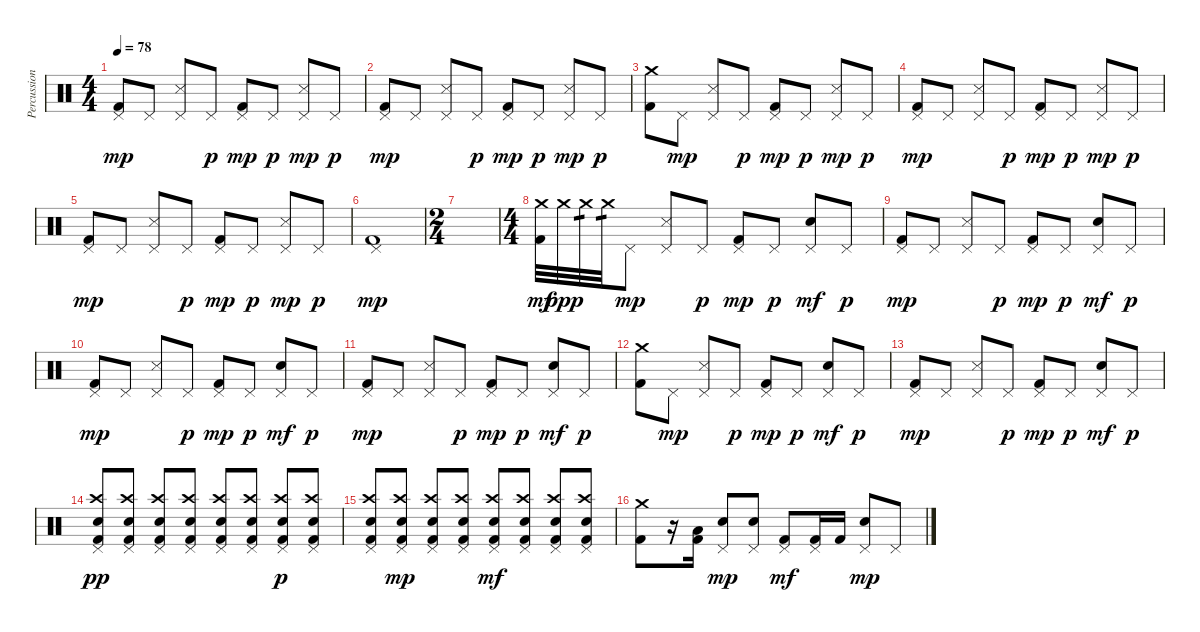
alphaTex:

\track ("Percussion" "Percussion") {instrument percussion}
\staff {score}
\articulation defaults
\ts (4 4)
\tempo 78
\clef neutral
\ks c
("Pedal Hi-Hat (hit)" "Kick (hit) 2").8{dy mp} "Pedal Hi-Hat (hit)".8 ("Pedal Hi-Hat (hit)" "Snare (side stick) 3").8 "Pedal Hi-Hat (hit)".8{dy p} ("Pedal Hi-Hat (hit)" "Kick (hit) 2").8{dy mp} "Pedal Hi-Hat (hit)".8{dy p} ("Pedal Hi-Hat (hit)" "Snare (side stick) 3").8{dy mp} "Pedal Hi-Hat (hit)".8{dy p} |
("Pedal Hi-Hat (hit)" "Kick (hit) 2").8{dy mp} "Pedal Hi-Hat (hit)".8 ("Pedal Hi-Hat (hit)" "Snare (side stick) 3").8 "Pedal Hi-Hat (hit)".8{dy p} ("Pedal Hi-Hat (hit)" "Kick (hit) 2").8{dy mp} "Pedal Hi-Hat (hit)".8{dy p} ("Pedal Hi-Hat (hit)" "Snare (side stick) 3").8{dy mp} "Pedal Hi-Hat (hit)".8{dy p} |
("Crash medium (hit)" "Kick (hit) 2").8 "Pedal Hi-Hat (hit)".8{dy mp} ("Pedal Hi-Hat (hit)" "Snare (side stick) 3").8 "Pedal Hi-Hat (hit)".8{dy p} ("Pedal Hi-Hat (hit)" "Kick (hit) 2").8{dy mp} "Pedal Hi-Hat (hit)".8{dy p} ("Pedal Hi-Hat (hit)" "Snare (side stick) 3").8{dy mp} "Pedal Hi-Hat (hit)".8{dy p} |
("Pedal Hi-Hat (hit)" "Kick (hit) 2").8{dy mp} "Pedal Hi-Hat (hit)".8 ("Pedal Hi-Hat (hit)" "Snare (side stick) 3").8 "Pedal Hi-Hat (hit)".8{dy p} ("Pedal Hi-Hat (hit)" "Kick (hit) 2").8{dy mp} "Pedal Hi-Hat (hit)".8{dy p} ("Pedal Hi-Hat (hit)" "Snare (side stick) 3").8{dy mp} "Pedal Hi-Hat (hit)".8{dy p} |
("Pedal Hi-Hat (hit)" "Kick (hit) 2").8{dy mp} "Pedal Hi-Hat (hit)".8 ("Pedal Hi-Hat (hit)" "Snare (side stick) 3").8 "Pedal Hi-Hat (hit)".8{dy p} ("Pedal Hi-Hat (hit)" "Kick (hit) 2").8{dy mp} "Pedal Hi-Hat (hit)".8{dy p} ("Pedal Hi-Hat (hit)" "Snare (side stick) 3").8{dy mp} "Pedal Hi-Hat (hit)".8{dy p} |
("Pedal Hi-Hat (hit)" "Kick (hit) 2").1{dy mp} |
\ts (2 4)
|
\ts (4 4)
("Crash medium (hit)" "Kick (hit) 2").32{dy mf} "Crash medium (hit)".32{dy ppp} "Crash medium (hit)".32{tp 1} "Crash medium (hit)".32{tp 1} "Pedal Hi-Hat (hit)".8{dy mp} ("Pedal Hi-Hat (hit)" "Snare (side stick) 3").8 "Pedal Hi-Hat (hit)".8{dy p} ("Pedal Hi-Hat (hit)" "Kick (hit) 2").8{dy mp} "Pedal Hi-Hat (hit)".8{dy p} ("Pedal Hi-Hat (hit)" "Electric Snare (hit)").8{dy mf} "Pedal Hi-Hat (hit)".8{dy p} |
("Pedal Hi-Hat (hit)" "Kick (hit) 2").8{dy mp} "Pedal Hi-Hat (hit)".8 ("Pedal Hi-Hat (hit)" "Snare (side stick) 3").8 "Pedal Hi-Hat (hit)".8{dy p} ("Pedal Hi-Hat (hit)" "Kick (hit) 2").8{dy mp} "Pedal Hi-Hat (hit)".8{dy p} ("Pedal Hi-Hat (hit)" "Electric Snare (hit)").8{dy mf} "Pedal Hi-Hat (hit)".8{dy p} |
("Pedal Hi-Hat (hit)" "Kick (hit) 2").8{dy mp} "Pedal Hi-Hat (hit)".8 ("Pedal Hi-Hat (hit)" "Snare (side stick) 3").8 "Pedal Hi-Hat (hit)".8{dy p} ("Pedal Hi-Hat (hit)" "Kick (hit) 2").8{dy mp} "Pedal Hi-Hat (hit)".8{dy p} ("Pedal Hi-Hat (hit)" "Electric Snare (hit)").8{dy mf} "Pedal Hi-Hat (hit)".8{dy p} |
("Pedal Hi-Hat (hit)" "Kick (hit) 2").8{dy mp} "Pedal Hi-Hat (hit)".8 ("Pedal Hi-Hat (hit)" "Snare (side stick) 3").8 "Pedal Hi-Hat (hit)".8{dy p} ("Pedal Hi-Hat (hit)" "Kick (hit) 2").8{dy mp} "Pedal Hi-Hat (hit)".8{dy p} ("Pedal Hi-Hat (hit)" "Electric Snare (hit)").8{dy mf} "Pedal Hi-Hat (hit)".8{dy p} |
("Crash medium (hit)" "Kick (hit) 2").8 "Pedal Hi-Hat (hit)".8{dy mp} ("Pedal Hi-Hat (hit)" "Snare (side stick) 3").8 "Pedal Hi-Hat (hit)".8{dy p} ("Pedal Hi-Hat (hit)" "Kick (hit) 2").8{dy mp} "Pedal Hi-Hat (hit)".8{dy p} ("Pedal Hi-Hat (hit)" "Electric Snare (hit)").8{dy mf} "Pedal Hi-Hat (hit)".8{dy p} |
("Pedal Hi-Hat (hit)" "Kick (hit) 2").8{dy mp} "Pedal Hi-Hat (hit)".8 ("Pedal Hi-Hat (hit)" "Snare (side stick) 3").8 "Pedal Hi-Hat (hit)".8{dy p} ("Pedal Hi-Hat (hit)" "Kick (hit) 2").8{dy mp} "Pedal Hi-Hat (hit)".8{dy p} ("Pedal Hi-Hat (hit)" "Electric Snare (hit)").8{dy mf} "Pedal Hi-Hat (hit)".8{dy p} |
("Crash high (hit)" "Pedal Hi-Hat (hit)" "Snare (hit) 2" "Kick (hit) 2").8{dy pp} ("Crash high (hit)" "Pedal Hi-Hat (hit)" "Snare (hit) 2" "Kick (hit) 2").8 ("Crash high (hit)" "Pedal Hi-Hat (hit)" "Snare (hit) 2" "Kick (hit) 2").8 ("Crash high (hit)" "Pedal Hi-Hat (hit)" "Snare (hit) 2" "Kick (hit) 2").8 ("Crash high (hit)" "Pedal Hi-Hat (hit)" "Snare (hit) 2" "Kick (hit) 2").8 ("Crash high (hit)" "Pedal Hi-Hat (hit)" "Snare (hit) 2" "Kick (hit) 2").8 ("Crash high (hit)" "Pedal Hi-Hat (hit)" "Snare (hit) 2" "Kick (hit) 2").8{dy p} ("Crash high (hit)" "Pedal Hi-Hat (hit)" "Snare (hit) 2" "Kick (hit) 2").8 |
("Crash high (hit)" "Pedal Hi-Hat (hit)" "Snare (hit) 2" "Kick (hit) 2").8 ("Crash high (hit)" "Pedal Hi-Hat (hit)" "Snare (hit) 2" "Kick (hit) 2").8{dy mp} ("Crash high (hit)" "Pedal Hi-Hat (hit)" "Snare (hit) 2" "Kick (hit) 2").8 ("Crash high (hit)" "Pedal Hi-Hat (hit)" "Snare (hit) 2" "Kick (hit) 2").8 ("Crash high (hit)" "Pedal Hi-Hat (hit)" "Snare (hit) 2" "Kick (hit) 2").8{dy mf} ("Crash high (hit)" "Pedal Hi-Hat (hit)" "Snare (hit) 2" "Kick (hit) 2").8 ("Crash high (hit)" "Pedal Hi-Hat (hit)" "Snare (hit) 2" "Kick (hit) 2").8 ("Crash high (hit)" "Pedal Hi-Hat (hit)" "Snare (hit) 2" "Kick (hit) 2").8 |
("Crash medium (hit)" "Kick (hit) 2").8 r.16 ("Low Floor Tom (hit)" "Kick (hit) 2").16 ("Pedal Hi-Hat (hit)" "Electric Snare (hit)").8{dy mp} ("Pedal Hi-Hat (hit)" "Electric Snare (hit)").8 ("Pedal Hi-Hat (hit)" "Kick (hit) 2").8{dy mf} ("Pedal Hi-Hat (hit)" "Kick (hit) 2").16 "Kick (hit) 2".16 ("Pedal Hi-Hat (hit)" "Electric Snare (hit)").8{dy mp} "Pedal Hi-Hat (hit)".8
